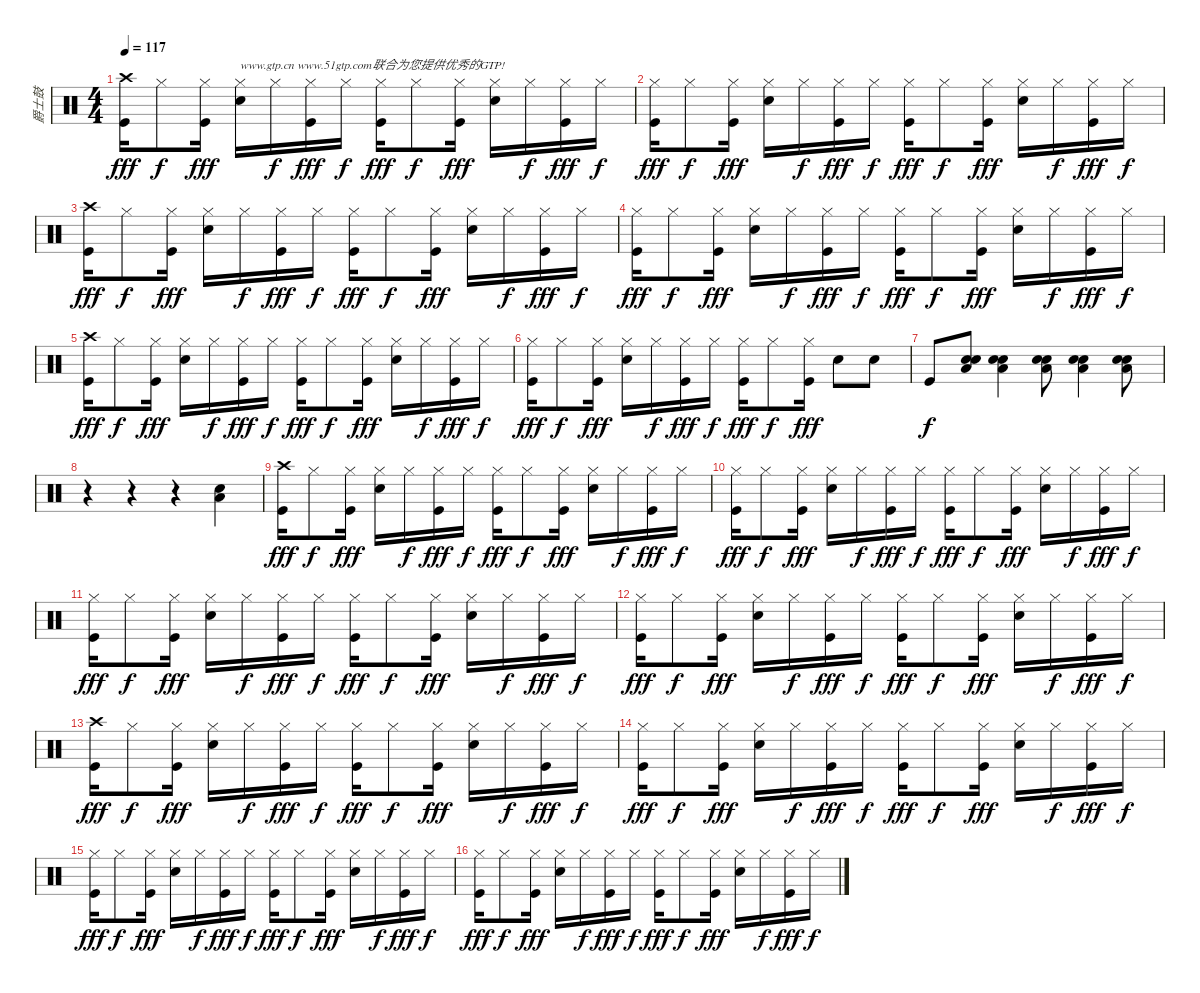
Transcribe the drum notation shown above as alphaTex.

\track ("爵士鼓" "爵士鼓") {instrument percussion}
\staff {score}
\articulation defaults
\ts (4 4)
\tempo 117
\clef neutral
\ks c
("Kick (hit)" "Crash high (hit)").16{dy fff} "Hi-Hat (closed)".8{dy f} ("Kick (hit)" "Hi-Hat (closed)").16{dy fff} ("Snare (hit) 2" "Hi-Hat (closed)").16{txt "www.gtp.cn www.51gtp.com联合为您提供优秀的GTP!"} "Hi-Hat (closed)".16{dy f} ("Kick (hit)" "Hi-Hat (closed)").16{dy fff} "Hi-Hat (closed)".16{dy f} ("Kick (hit)" "Hi-Hat (closed)").16{dy fff} "Hi-Hat (closed)".8{dy f} ("Kick (hit)" "Hi-Hat (closed)").16{dy fff} ("Snare (hit) 2" "Hi-Hat (closed)").16 "Hi-Hat (closed)".16{dy f} ("Kick (hit)" "Hi-Hat (closed)").16{dy fff} "Hi-Hat (closed)".16{dy f} |
("Kick (hit)" "Hi-Hat (closed)").16{dy fff} "Hi-Hat (closed)".8{dy f} ("Kick (hit)" "Hi-Hat (closed)").16{dy fff} ("Snare (hit) 2" "Hi-Hat (closed)").16 "Hi-Hat (closed)".16{dy f} ("Kick (hit)" "Hi-Hat (closed)").16{dy fff} "Hi-Hat (closed)".16{dy f} ("Kick (hit)" "Hi-Hat (closed)").16{dy fff} "Hi-Hat (closed)".8{dy f} ("Kick (hit)" "Hi-Hat (closed)").16{dy fff} ("Snare (hit) 2" "Hi-Hat (closed)").16 "Hi-Hat (closed)".16{dy f} ("Kick (hit)" "Hi-Hat (closed)").16{dy fff} "Hi-Hat (closed)".16{dy f} |
("Kick (hit)" "Crash high (hit)").16{dy fff} "Hi-Hat (closed)".8{dy f} ("Kick (hit)" "Hi-Hat (closed)").16{dy fff} ("Snare (hit) 2" "Hi-Hat (closed)").16 "Hi-Hat (closed)".16{dy f} ("Kick (hit)" "Hi-Hat (closed)").16{dy fff} "Hi-Hat (closed)".16{dy f} ("Kick (hit)" "Hi-Hat (closed)").16{dy fff} "Hi-Hat (closed)".8{dy f} ("Kick (hit)" "Hi-Hat (closed)").16{dy fff} ("Snare (hit) 2" "Hi-Hat (closed)").16 "Hi-Hat (closed)".16{dy f} ("Kick (hit)" "Hi-Hat (closed)").16{dy fff} "Hi-Hat (closed)".16{dy f} |
("Kick (hit)" "Hi-Hat (closed)").16{dy fff} "Hi-Hat (closed)".8{dy f} ("Kick (hit)" "Hi-Hat (closed)").16{dy fff} ("Snare (hit) 2" "Hi-Hat (closed)").16 "Hi-Hat (closed)".16{dy f} ("Kick (hit)" "Hi-Hat (closed)").16{dy fff} "Hi-Hat (closed)".16{dy f} ("Kick (hit)" "Hi-Hat (closed)").16{dy fff} "Hi-Hat (closed)".8{dy f} ("Kick (hit)" "Hi-Hat (closed)").16{dy fff} ("Snare (hit) 2" "Hi-Hat (closed)").16 "Hi-Hat (closed)".16{dy f} ("Kick (hit)" "Hi-Hat (closed)").16{dy fff} "Hi-Hat (closed)".16{dy f} |
("Kick (hit)" "Crash high (hit)").16{dy fff} "Hi-Hat (closed)".8{dy f} ("Kick (hit)" "Hi-Hat (closed)").16{dy fff} ("Snare (hit) 2" "Hi-Hat (closed)").16 "Hi-Hat (closed)".16{dy f} ("Kick (hit)" "Hi-Hat (closed)").16{dy fff} "Hi-Hat (closed)".16{dy f} ("Kick (hit)" "Hi-Hat (closed)").16{dy fff} "Hi-Hat (closed)".8{dy f} ("Kick (hit)" "Hi-Hat (closed)").16{dy fff} ("Snare (hit) 2" "Hi-Hat (closed)").16 "Hi-Hat (closed)".16{dy f} ("Kick (hit)" "Hi-Hat (closed)").16{dy fff} "Hi-Hat (closed)".16{dy f} |
("Kick (hit)" "Hi-Hat (closed)").16{dy fff} "Hi-Hat (closed)".8{dy f} ("Kick (hit)" "Hi-Hat (closed)").16{dy fff} ("Snare (hit) 2" "Hi-Hat (closed)").16 "Hi-Hat (closed)".16{dy f} ("Kick (hit)" "Hi-Hat (closed)").16{dy fff} "Hi-Hat (closed)".16{dy f} ("Kick (hit)" "Hi-Hat (closed)").16{dy fff} "Hi-Hat (closed)".8{dy f} ("Kick (hit)" "Hi-Hat (closed)").16{dy fff} "Snare (hit) 2".8 "Snare (hit) 2".8 |
"Kick (hit)".8{dy f} ("Low Floor Tom (hit)" "Snare (hit) 2" "Snare (hit) 2").8 ("Low Floor Tom (hit)" "Snare (hit) 2" "Snare (hit) 2").4 ("Low Floor Tom (hit)" "Snare (hit) 2" "Snare (hit) 2").8 ("Low Floor Tom (hit)" "Snare (hit) 2" "Snare (hit) 2").4 ("Low Floor Tom (hit)" "Snare (hit) 2" "Snare (hit) 2").8 |
r.4 r.4 r.4 ("Snare (hit) 2" "Low Floor Tom (hit)").4 |
("Kick (hit)" "Crash high (hit)").16{dy fff} "Hi-Hat (closed)".8{dy f} ("Kick (hit)" "Hi-Hat (closed)").16{dy fff} ("Snare (hit) 2" "Hi-Hat (closed)").16 "Hi-Hat (closed)".16{dy f} ("Kick (hit)" "Hi-Hat (closed)").16{dy fff} "Hi-Hat (closed)".16{dy f} ("Kick (hit)" "Hi-Hat (closed)").16{dy fff} "Hi-Hat (closed)".8{dy f} ("Kick (hit)" "Hi-Hat (closed)").16{dy fff} ("Snare (hit) 2" "Hi-Hat (closed)").16 "Hi-Hat (closed)".16{dy f} ("Kick (hit)" "Hi-Hat (closed)").16{dy fff} "Hi-Hat (closed)".16{dy f} |
("Kick (hit)" "Hi-Hat (closed)").16{dy fff} "Hi-Hat (closed)".8{dy f} ("Kick (hit)" "Hi-Hat (closed)").16{dy fff} ("Snare (hit) 2" "Hi-Hat (closed)").16 "Hi-Hat (closed)".16{dy f} ("Kick (hit)" "Hi-Hat (closed)").16{dy fff} "Hi-Hat (closed)".16{dy f} ("Kick (hit)" "Hi-Hat (closed)").16{dy fff} "Hi-Hat (closed)".8{dy f} ("Kick (hit)" "Hi-Hat (closed)").16{dy fff} ("Snare (hit) 2" "Hi-Hat (closed)").16 "Hi-Hat (closed)".16{dy f} ("Kick (hit)" "Hi-Hat (closed)").16{dy fff} "Hi-Hat (closed)".16{dy f} |
("Kick (hit)" "Hi-Hat (closed)").16{dy fff} "Hi-Hat (closed)".8{dy f} ("Kick (hit)" "Hi-Hat (closed)").16{dy fff} ("Snare (hit) 2" "Hi-Hat (closed)").16 "Hi-Hat (closed)".16{dy f} ("Kick (hit)" "Hi-Hat (closed)").16{dy fff} "Hi-Hat (closed)".16{dy f} ("Kick (hit)" "Hi-Hat (closed)").16{dy fff} "Hi-Hat (closed)".8{dy f} ("Kick (hit)" "Hi-Hat (closed)").16{dy fff} ("Snare (hit) 2" "Hi-Hat (closed)").16 "Hi-Hat (closed)".16{dy f} ("Kick (hit)" "Hi-Hat (closed)").16{dy fff} "Hi-Hat (closed)".16{dy f} |
("Kick (hit)" "Hi-Hat (closed)").16{dy fff} "Hi-Hat (closed)".8{dy f} ("Kick (hit)" "Hi-Hat (closed)").16{dy fff} ("Snare (hit) 2" "Hi-Hat (closed)").16 "Hi-Hat (closed)".16{dy f} ("Kick (hit)" "Hi-Hat (closed)").16{dy fff} "Hi-Hat (closed)".16{dy f} ("Kick (hit)" "Hi-Hat (closed)").16{dy fff} "Hi-Hat (closed)".8{dy f} ("Kick (hit)" "Hi-Hat (closed)").16{dy fff} ("Snare (hit) 2" "Hi-Hat (closed)").16 "Hi-Hat (closed)".16{dy f} ("Kick (hit)" "Hi-Hat (closed)").16{dy fff} "Hi-Hat (closed)".16{dy f} |
("Kick (hit)" "Crash high (hit)").16{dy fff} "Hi-Hat (closed)".8{dy f} ("Kick (hit)" "Hi-Hat (closed)").16{dy fff} ("Snare (hit) 2" "Hi-Hat (closed)").16 "Hi-Hat (closed)".16{dy f} ("Kick (hit)" "Hi-Hat (closed)").16{dy fff} "Hi-Hat (closed)".16{dy f} ("Kick (hit)" "Hi-Hat (closed)").16{dy fff} "Hi-Hat (closed)".8{dy f} ("Kick (hit)" "Hi-Hat (closed)").16{dy fff} ("Snare (hit) 2" "Hi-Hat (closed)").16 "Hi-Hat (closed)".16{dy f} ("Kick (hit)" "Hi-Hat (closed)").16{dy fff} "Hi-Hat (closed)".16{dy f} |
("Kick (hit)" "Hi-Hat (closed)").16{dy fff} "Hi-Hat (closed)".8{dy f} ("Kick (hit)" "Hi-Hat (closed)").16{dy fff} ("Snare (hit) 2" "Hi-Hat (closed)").16 "Hi-Hat (closed)".16{dy f} ("Kick (hit)" "Hi-Hat (closed)").16{dy fff} "Hi-Hat (closed)".16{dy f} ("Kick (hit)" "Hi-Hat (closed)").16{dy fff} "Hi-Hat (closed)".8{dy f} ("Kick (hit)" "Hi-Hat (closed)").16{dy fff} ("Snare (hit) 2" "Hi-Hat (closed)").16 "Hi-Hat (closed)".16{dy f} ("Kick (hit)" "Hi-Hat (closed)").16{dy fff} "Hi-Hat (closed)".16{dy f} |
("Kick (hit)" "Hi-Hat (closed)").16{dy fff} "Hi-Hat (closed)".8{dy f} ("Kick (hit)" "Hi-Hat (closed)").16{dy fff} ("Snare (hit) 2" "Hi-Hat (closed)").16 "Hi-Hat (closed)".16{dy f} ("Kick (hit)" "Hi-Hat (closed)").16{dy fff} "Hi-Hat (closed)".16{dy f} ("Kick (hit)" "Hi-Hat (closed)").16{dy fff} "Hi-Hat (closed)".8{dy f} ("Kick (hit)" "Hi-Hat (closed)").16{dy fff} ("Snare (hit) 2" "Hi-Hat (closed)").16 "Hi-Hat (closed)".16{dy f} ("Kick (hit)" "Hi-Hat (closed)").16{dy fff} "Hi-Hat (closed)".16{dy f} |
("Kick (hit)" "Hi-Hat (closed)").16{dy fff} "Hi-Hat (closed)".8{dy f} ("Kick (hit)" "Hi-Hat (closed)").16{dy fff} ("Snare (hit) 2" "Hi-Hat (closed)").16 "Hi-Hat (closed)".16{dy f} ("Kick (hit)" "Hi-Hat (closed)").16{dy fff} "Hi-Hat (closed)".16{dy f} ("Kick (hit)" "Hi-Hat (closed)").16{dy fff} "Hi-Hat (closed)".8{dy f} ("Kick (hit)" "Hi-Hat (closed)").16{dy fff} ("Snare (hit) 2" "Hi-Hat (closed)").16 "Hi-Hat (closed)".16{dy f} ("Kick (hit)" "Hi-Hat (closed)").16{dy fff} "Hi-Hat (closed)".16{dy f}
